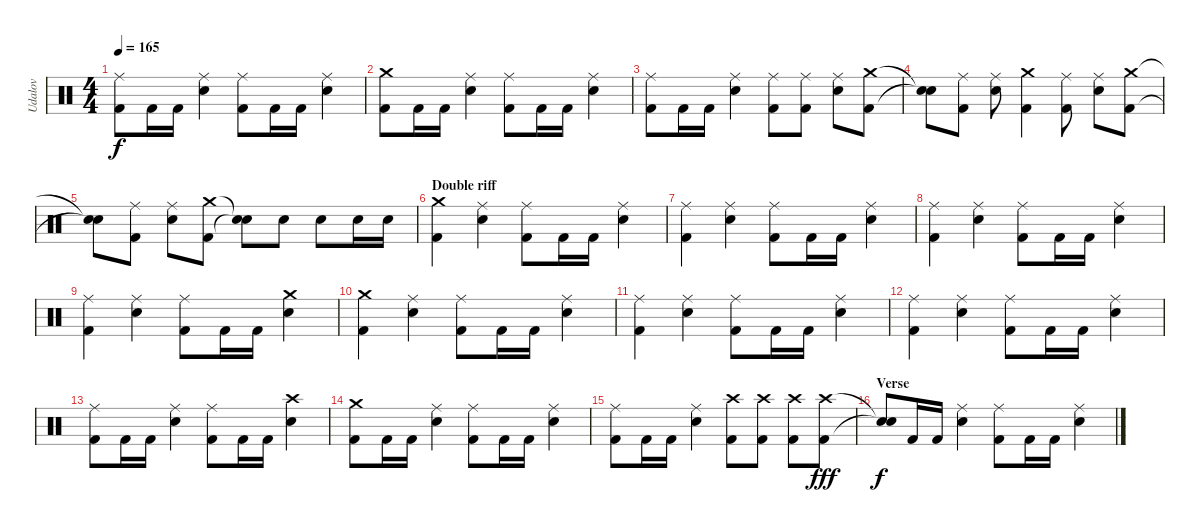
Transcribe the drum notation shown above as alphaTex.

\track ("Udalov" "Udalov") {instrument percussion}
\staff {score}
\articulation defaults
\ts (4 4)
\tempo 165
\clef neutral
\ks c
("Kick (hit) 2" "Ride (middle)").8{dy f} "Kick (hit) 2".16 "Kick (hit) 2".16 ("Snare (hit) 2" "Ride (middle)").4 ("Kick (hit) 2" "Ride (middle)").8 "Kick (hit) 2".16 "Kick (hit) 2".16 ("Snare (hit) 2" "Ride (middle)").4 |
("Kick (hit) 2" "Crash medium (hit)").8 "Kick (hit) 2".16 "Kick (hit) 2".16 ("Snare (hit) 2" "Ride (middle)").4 ("Kick (hit) 2" "Ride (middle)").8 "Kick (hit) 2".16 "Kick (hit) 2".16 ("Snare (hit) 2" "Ride (middle)").4 |
("Kick (hit) 2" "Ride (middle)").8 "Kick (hit) 2".16 "Kick (hit) 2".16 ("Snare (hit) 2" "Ride (middle)").4 ("Kick (hit) 2" "Ride (middle)").8 ("Kick (hit) 2" "Ride (middle)").8 ("Snare (hit) 2" "Ride (middle)").8 ("Kick (hit) 2" "Crash medium (hit)").8 |
("Snare (hit)"{t} "Snare (hit)"{t}).8 ("Kick (hit) 2" "Ride (middle)").8 ("Snare (hit) 2" "Ride (middle)").8 ("Kick (hit) 2" "Crash medium (hit)").4 ("Kick (hit) 2" "Ride (middle)").8 ("Snare (hit) 2" "Ride (middle)").8 ("Kick (hit) 2" "Crash medium (hit)").8 |
("Snare (hit)"{t} "Snare (hit)"{t}).8 ("Kick (hit) 2" "Ride (middle)").8 ("Snare (hit) 2" "Ride (middle)").8 ("Kick (hit) 2" "Crash medium (hit)").8 ("Snare (hit)"{t} "Snare (hit)"{t}).8 "Snare (hit) 2".8 "Snare (hit) 2".8 "Snare (hit) 2".16 "Snare (hit) 2".16 |
\section ("" "Double riff")
("Kick (hit) 2" "Crash medium (hit)").4 ("Snare (hit) 2" "Ride (middle)").4 ("Kick (hit) 2" "Ride (middle)").8 "Kick (hit) 2".16 "Kick (hit) 2".16 ("Snare (hit) 2" "Ride (middle)").4 |
("Kick (hit) 2" "Ride (middle)").4 ("Snare (hit) 2" "Ride (middle)").4 ("Kick (hit) 2" "Ride (middle)").8 "Kick (hit) 2".16 "Kick (hit) 2".16 ("Snare (hit) 2" "Ride (middle)").4 |
("Kick (hit) 2" "Ride (middle)").4 ("Snare (hit) 2" "Ride (middle)").4 ("Kick (hit) 2" "Ride (middle)").8 "Kick (hit) 2".16 "Kick (hit) 2".16 ("Snare (hit) 2" "Ride (middle)").4 |
("Kick (hit) 2" "Ride (middle)").4 ("Snare (hit) 2" "Ride (middle)").4 ("Kick (hit) 2" "Ride (middle)").8 "Kick (hit) 2".16 "Kick (hit) 2".16 ("Snare (hit) 2" "Crash medium (hit)").4 |
("Kick (hit) 2" "Crash medium (hit)").4 ("Snare (hit) 2" "Ride (middle)").4 ("Kick (hit) 2" "Ride (middle)").8 "Kick (hit) 2".16 "Kick (hit) 2".16 ("Snare (hit) 2" "Ride (middle)").4 |
("Kick (hit) 2" "Ride (middle)").4 ("Snare (hit) 2" "Ride (middle)").4 ("Kick (hit) 2" "Ride (middle)").8 "Kick (hit) 2".16 "Kick (hit) 2".16 ("Snare (hit) 2" "Ride (middle)").4 |
("Kick (hit) 2" "Ride (middle)").4 ("Snare (hit) 2" "Ride (middle)").4 ("Kick (hit) 2" "Ride (middle)").8 "Kick (hit) 2".16 "Kick (hit) 2".16 ("Snare (hit) 2" "Ride (middle)").4 |
("Kick (hit) 2" "Ride (middle)").8 "Kick (hit) 2".16 "Kick (hit) 2".16 ("Snare (hit) 2" "Ride (middle)").4 ("Kick (hit) 2" "Ride (middle)").8 "Kick (hit) 2".16 "Kick (hit) 2".16 ("Snare (hit) 2" "Crash high (hit)").4 |
("Kick (hit) 2" "Crash medium (hit)").8 "Kick (hit) 2".16 "Kick (hit) 2".16 ("Snare (hit) 2" "Ride (middle)").4 ("Kick (hit) 2" "Ride (middle)").8 "Kick (hit) 2".16 "Kick (hit) 2".16 ("Snare (hit) 2" "Ride (middle)").4 |
("Kick (hit) 2" "Ride (middle)").8 "Kick (hit) 2".16 "Kick (hit) 2".16 ("Snare (hit) 2" "Ride (middle)").4 ("Kick (hit) 2" "Crash high (hit)").8 ("Kick (hit) 2" "Crash high (hit)").8 ("Kick (hit) 2" "Crash high (hit)").8 ("Kick (hit) 2" "Crash high (hit)").8{dy fff} |
\section ("" "Verse")
("Snare (hit)"{t} "Snare (hit)"{t}).8{dy f} "Kick (hit) 2".16 "Kick (hit) 2".16 ("Snare (hit) 2" "Ride (middle)").4 ("Kick (hit) 2" "Ride (middle)").8 "Kick (hit) 2".16 "Kick (hit) 2".16 ("Snare (hit) 2" "Ride (middle)").4
